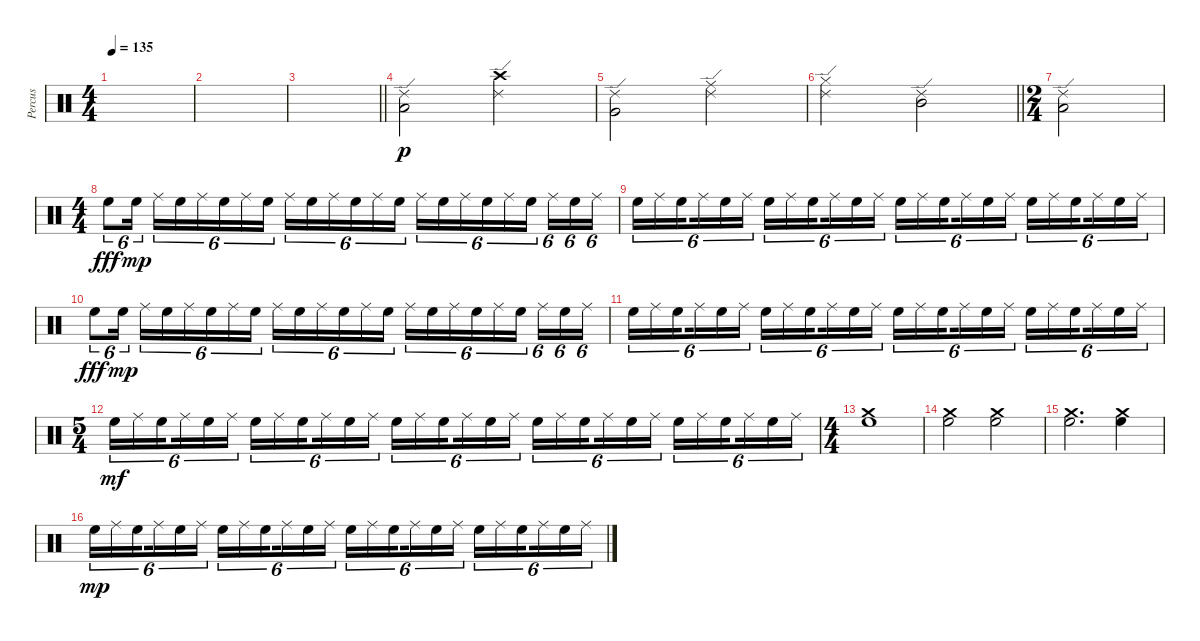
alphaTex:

\track ("Percus" "Percus") {instrument percussion}
\staff {score}
\articulation defaults
\ts (4 4)
\tempo 135
\clef neutral
\ks c
|
|
\barLineRight lightlight
|
\section ("" "")
("Ride (edge) 2" "Low Floor Tom (hit)").2{dy p} ("Ride (edge) 2" "Crash high (hit)").2 |
("Ride (edge) 2" "Very Low Tom (hit)").2 ("Ride (edge) 2" "Ride (middle)").2 |
\barLineRight lightlight
("Ride (edge) 2" "Hi-Hat (closed)").2 ("Ride (edge) 2" "Mid Tom (hit)").2 |
\ts (2 4)
\section ("" "")
("Ride (edge) 2" "Low Floor Tom (hit)").2 |
\ts (4 4)
"High Floor Tom (hit)".8{tu (6 4) dy fff} "High Floor Tom (hit)".16{tu (6 4) dy mp beam splitsecondary} "Ride (middle)".16{tu (6 4)} "High Floor Tom (hit)".16{tu (6 4)} "Ride (middle)".16{tu (6 4)} "High Floor Tom (hit)".16{tu (6 4)} "Ride (middle)".16{tu (6 4)} "High Floor Tom (hit)".16{tu (6 4) beam splitsecondary} "Ride (middle)".16{tu (6 4)} "High Floor Tom (hit)".16{tu (6 4)} "Ride (middle)".16{tu (6 4)} "High Floor Tom (hit)".16{tu (6 4)} "Ride (middle)".16{tu (6 4)} "High Floor Tom (hit)".16{tu (6 4) beam splitsecondary} "Ride (middle)".16{tu (6 4)} "High Floor Tom (hit)".16{tu (6 4)} "Ride (middle)".16{tu (6 4)} "High Floor Tom (hit)".16{tu (6 4)} "Ride (middle)".16{tu (6 4)} "High Floor Tom (hit)".16{tu (6 4) beam splitsecondary} "Ride (middle)".16{tu (6 4)} "High Floor Tom (hit)".16{tu (6 4)} "Ride (middle)".16{tu (6 4)} |
"High Floor Tom (hit)".16{tu (6 4)} "Ride (middle)".16{tu (6 4)} "High Floor Tom (hit)".16{tu (6 4) beam splitsecondary} "Ride (middle)".16{tu (6 4)} "High Floor Tom (hit)".16{tu (6 4)} "Ride (middle)".16{tu (6 4)} "High Floor Tom (hit)".16{tu (6 4)} "Ride (middle)".16{tu (6 4)} "High Floor Tom (hit)".16{tu (6 4) beam splitsecondary} "Ride (middle)".16{tu (6 4)} "High Floor Tom (hit)".16{tu (6 4)} "Ride (middle)".16{tu (6 4)} "High Floor Tom (hit)".16{tu (6 4)} "Ride (middle)".16{tu (6 4)} "High Floor Tom (hit)".16{tu (6 4) beam splitsecondary} "Ride (middle)".16{tu (6 4)} "High Floor Tom (hit)".16{tu (6 4)} "Ride (middle)".16{tu (6 4)} "High Floor Tom (hit)".16{tu (6 4)} "Ride (middle)".16{tu (6 4)} "High Floor Tom (hit)".16{tu (6 4) beam splitsecondary} "Ride (middle)".16{tu (6 4)} "High Floor Tom (hit)".16{tu (6 4)} "Ride (middle)".16{tu (6 4)} |
"High Floor Tom (hit)".8{tu (6 4) dy fff} "High Floor Tom (hit)".16{tu (6 4) dy mp beam splitsecondary} "Ride (middle)".16{tu (6 4)} "High Floor Tom (hit)".16{tu (6 4)} "Ride (middle)".16{tu (6 4)} "High Floor Tom (hit)".16{tu (6 4)} "Ride (middle)".16{tu (6 4)} "High Floor Tom (hit)".16{tu (6 4) beam splitsecondary} "Ride (middle)".16{tu (6 4)} "High Floor Tom (hit)".16{tu (6 4)} "Ride (middle)".16{tu (6 4)} "High Floor Tom (hit)".16{tu (6 4)} "Ride (middle)".16{tu (6 4)} "High Floor Tom (hit)".16{tu (6 4) beam splitsecondary} "Ride (middle)".16{tu (6 4)} "High Floor Tom (hit)".16{tu (6 4)} "Ride (middle)".16{tu (6 4)} "High Floor Tom (hit)".16{tu (6 4)} "Ride (middle)".16{tu (6 4)} "High Floor Tom (hit)".16{tu (6 4) beam splitsecondary} "Ride (middle)".16{tu (6 4)} "High Floor Tom (hit)".16{tu (6 4)} "Ride (middle)".16{tu (6 4)} |
"High Floor Tom (hit)".16{tu (6 4)} "Ride (middle)".16{tu (6 4)} "High Floor Tom (hit)".16{tu (6 4) beam splitsecondary} "Ride (middle)".16{tu (6 4)} "High Floor Tom (hit)".16{tu (6 4)} "Ride (middle)".16{tu (6 4)} "High Floor Tom (hit)".16{tu (6 4)} "Ride (middle)".16{tu (6 4)} "High Floor Tom (hit)".16{tu (6 4) beam splitsecondary} "Ride (middle)".16{tu (6 4)} "High Floor Tom (hit)".16{tu (6 4)} "Ride (middle)".16{tu (6 4)} "High Floor Tom (hit)".16{tu (6 4)} "Ride (middle)".16{tu (6 4)} "High Floor Tom (hit)".16{tu (6 4) beam splitsecondary} "Ride (middle)".16{tu (6 4)} "High Floor Tom (hit)".16{tu (6 4)} "Ride (middle)".16{tu (6 4)} "High Floor Tom (hit)".16{tu (6 4)} "Ride (middle)".16{tu (6 4)} "High Floor Tom (hit)".16{tu (6 4) beam splitsecondary} "Ride (middle)".16{tu (6 4)} "High Floor Tom (hit)".16{tu (6 4)} "Ride (middle)".16{tu (6 4)} |
\ts (5 4)
"High Floor Tom (hit)".16{tu (6 4) dy mf} "Ride (middle)".16{tu (6 4)} "High Floor Tom (hit)".16{tu (6 4) beam splitsecondary} "Ride (middle)".16{tu (6 4)} "High Floor Tom (hit)".16{tu (6 4)} "Ride (middle)".16{tu (6 4)} "High Floor Tom (hit)".16{tu (6 4)} "Ride (middle)".16{tu (6 4)} "High Floor Tom (hit)".16{tu (6 4) beam splitsecondary} "Ride (middle)".16{tu (6 4)} "High Floor Tom (hit)".16{tu (6 4)} "Ride (middle)".16{tu (6 4)} "High Floor Tom (hit)".16{tu (6 4)} "Ride (middle)".16{tu (6 4)} "High Floor Tom (hit)".16{tu (6 4) beam splitsecondary} "Ride (middle)".16{tu (6 4)} "High Floor Tom (hit)".16{tu (6 4)} "Ride (middle)".16{tu (6 4)} "High Floor Tom (hit)".16{tu (6 4)} "Ride (middle)".16{tu (6 4)} "High Floor Tom (hit)".16{tu (6 4) beam splitsecondary} "Ride (middle)".16{tu (6 4)} "High Floor Tom (hit)".16{tu (6 4)} "Ride (middle)".16{tu (6 4)} "High Floor Tom (hit)".16{tu (6 4)} "Ride (middle)".16{tu (6 4)} "High Floor Tom (hit)".16{tu (6 4) beam splitsecondary} "Ride (middle)".16{tu (6 4)} "High Floor Tom (hit)".16{tu (6 4)} "Ride (middle)".16{tu (6 4)} |
\ts (4 4)
("Crash medium (hit)" "High Floor Tom (hit)").1 |
("Crash medium (hit)" "High Floor Tom (hit)").2 ("Crash medium (hit)" "High Floor Tom (hit)").2 |
("Crash medium (hit)" "High Floor Tom (hit)").2{d} ("Crash medium (hit)" "High Floor Tom (hit)").4 |
"High Floor Tom (hit)".16{tu (6 4) dy mp} "Ride (middle)".16{tu (6 4)} "High Floor Tom (hit)".16{tu (6 4) beam splitsecondary} "Ride (middle)".16{tu (6 4)} "High Floor Tom (hit)".16{tu (6 4)} "Ride (middle)".16{tu (6 4)} "High Floor Tom (hit)".16{tu (6 4)} "Ride (middle)".16{tu (6 4)} "High Floor Tom (hit)".16{tu (6 4) beam splitsecondary} "Ride (middle)".16{tu (6 4)} "High Floor Tom (hit)".16{tu (6 4)} "Ride (middle)".16{tu (6 4)} "High Floor Tom (hit)".16{tu (6 4)} "Ride (middle)".16{tu (6 4)} "High Floor Tom (hit)".16{tu (6 4) beam splitsecondary} "Ride (middle)".16{tu (6 4)} "High Floor Tom (hit)".16{tu (6 4)} "Ride (middle)".16{tu (6 4)} "High Floor Tom (hit)".16{tu (6 4)} "Ride (middle)".16{tu (6 4)} "High Floor Tom (hit)".16{tu (6 4) beam splitsecondary} "Ride (middle)".16{tu (6 4)} "High Floor Tom (hit)".16{tu (6 4)} "Ride (middle)".16{tu (6 4)}
